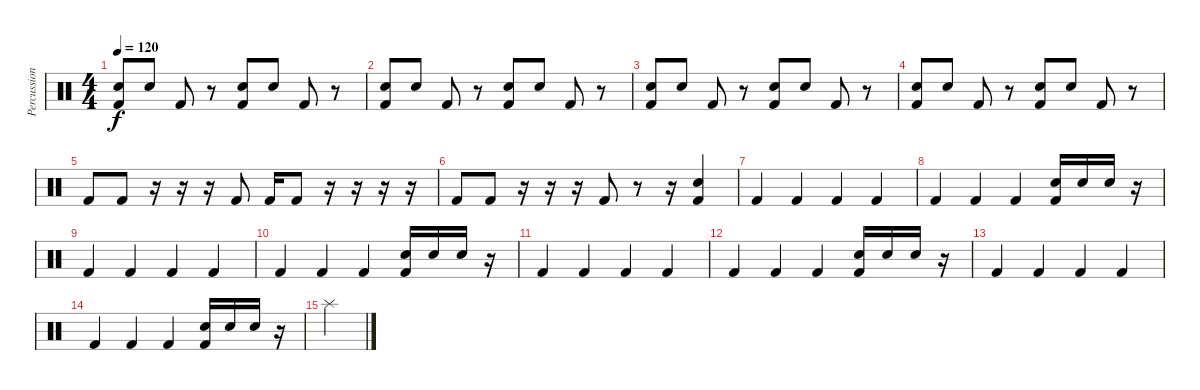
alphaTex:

\track ("Percussion" "Percussion") {instrument percussion}
\staff {score}
\articulation defaults
\ts (4 4)
\tempo 120
\clef neutral
\ks c
("Electric Snare (hit)" "Kick (hit) 2").8{dy f} "Electric Snare (hit)".8 "Kick (hit) 2".8 r.8 ("Electric Snare (hit)" "Kick (hit) 2").8 "Electric Snare (hit)".8 "Kick (hit) 2".8 r.8 |
("Electric Snare (hit)" "Kick (hit) 2").8 "Electric Snare (hit)".8 "Kick (hit) 2".8 r.8 ("Electric Snare (hit)" "Kick (hit) 2").8 "Electric Snare (hit)".8 "Kick (hit) 2".8 r.8 |
("Electric Snare (hit)" "Kick (hit) 2").8 "Electric Snare (hit)".8 "Kick (hit) 2".8 r.8 ("Electric Snare (hit)" "Kick (hit) 2").8 "Electric Snare (hit)".8 "Kick (hit) 2".8 r.8 |
("Electric Snare (hit)" "Kick (hit) 2").8 "Electric Snare (hit)".8 "Kick (hit) 2".8 r.8 ("Electric Snare (hit)" "Kick (hit) 2").8 "Electric Snare (hit)".8 "Kick (hit) 2".8 r.8 |
"Kick (hit) 2".8 "Kick (hit) 2".8 r.16 r.16 r.16 "Kick (hit) 2".8 "Kick (hit) 2".16 "Kick (hit) 2".8 r.16 r.16 r.16 r.16 |
"Kick (hit) 2".8 "Kick (hit) 2".8 r.16 r.16 r.16 "Kick (hit) 2".8 r.8 r.16 ("Electric Snare (hit)" "Kick (hit) 2").4 |
"Kick (hit) 2".4 "Kick (hit) 2".4 "Kick (hit) 2".4 "Kick (hit) 2".4 |
"Kick (hit) 2".4 "Kick (hit) 2".4 "Kick (hit) 2".4 ("Electric Snare (hit)" "Kick (hit) 2").16 "Electric Snare (hit)".16 "Electric Snare (hit)".16 r.16 |
"Kick (hit) 2".4 "Kick (hit) 2".4 "Kick (hit) 2".4 "Kick (hit) 2".4 |
"Kick (hit) 2".4 "Kick (hit) 2".4 "Kick (hit) 2".4 ("Electric Snare (hit)" "Kick (hit) 2").16 "Electric Snare (hit)".16 "Electric Snare (hit)".16 r.16 |
"Kick (hit) 2".4 "Kick (hit) 2".4 "Kick (hit) 2".4 "Kick (hit) 2".4 |
"Kick (hit) 2".4 "Kick (hit) 2".4 "Kick (hit) 2".4 ("Electric Snare (hit)" "Kick (hit) 2").16 "Electric Snare (hit)".16 "Electric Snare (hit)".16 r.16 |
"Kick (hit) 2".4 "Kick (hit) 2".4 "Kick (hit) 2".4 "Kick (hit) 2".4 |
"Kick (hit) 2".4 "Kick (hit) 2".4 "Kick (hit) 2".4 ("Electric Snare (hit)" "Kick (hit) 2").16 "Electric Snare (hit)".16 "Electric Snare (hit)".16 r.16 |
"Splash (hit)".4
